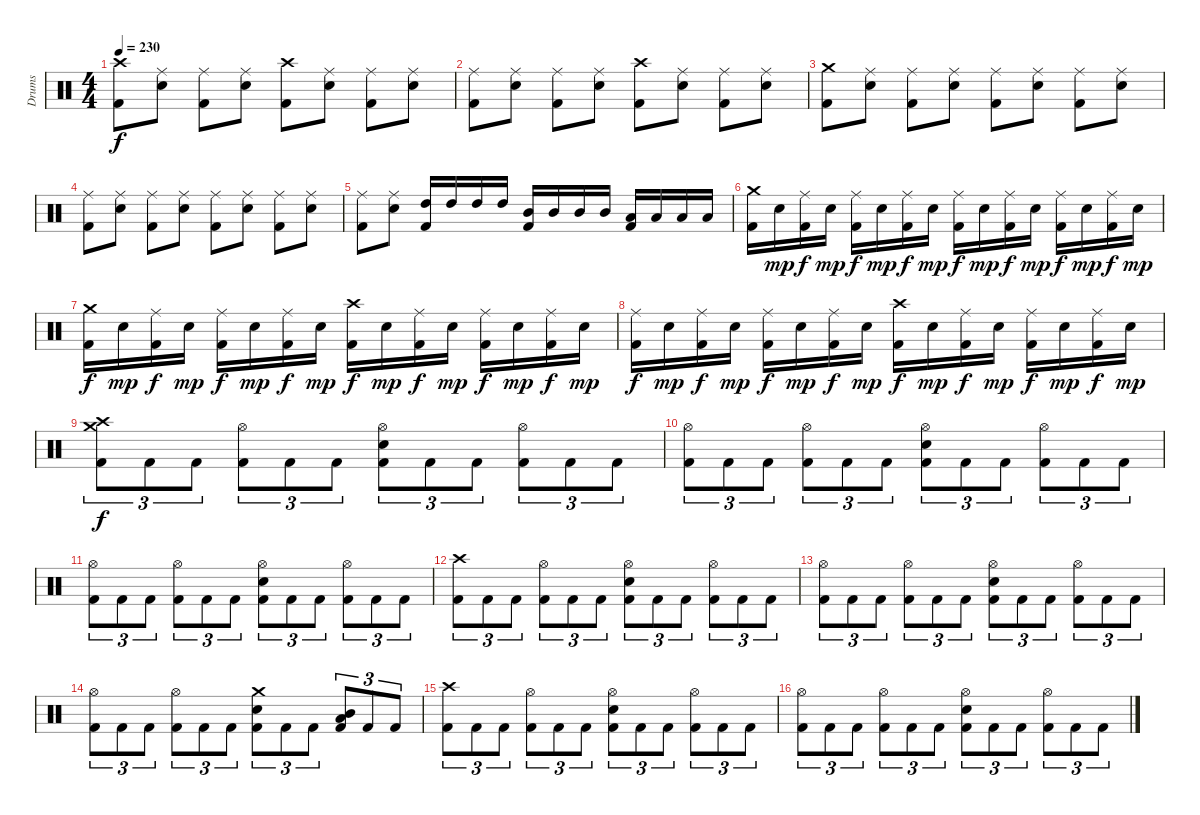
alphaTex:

\track ("Drums" "Drums") {instrument percussion}
\staff {score}
\articulation defaults
\ts (4 4)
\tempo 230
\clef neutral
\ks c
("Crash high (hit)" "Kick (hit) 2").8{dy f} ("Ride (middle)" "Electric Snare (hit)").8 ("Ride (middle)" "Kick (hit) 2").8 ("Ride (middle)" "Electric Snare (hit)").8 ("Crash high (hit)" "Kick (hit) 2").8 ("Ride (middle)" "Electric Snare (hit)").8 ("Ride (middle)" "Kick (hit) 2").8 ("Ride (middle)" "Electric Snare (hit)").8 |
("Ride (middle)" "Kick (hit) 2").8 ("Ride (middle)" "Electric Snare (hit)").8 ("Ride (middle)" "Kick (hit) 2").8 ("Ride (middle)" "Electric Snare (hit)").8 ("Crash high (hit)" "Kick (hit) 2").8 ("Ride (middle)" "Electric Snare (hit)").8 ("Ride (middle)" "Kick (hit) 2").8 ("Ride (middle)" "Electric Snare (hit)").8 |
("Crash medium (hit)" "Kick (hit) 2").8 ("Ride (middle)" "Electric Snare (hit)").8 ("Ride (middle)" "Kick (hit) 2").8 ("Ride (middle)" "Electric Snare (hit)").8 ("Ride (middle)" "Kick (hit) 2").8 ("Ride (middle)" "Electric Snare (hit)").8 ("Ride (middle)" "Kick (hit) 2").8 ("Ride (middle)" "Electric Snare (hit)").8 |
("Ride (middle)" "Kick (hit) 2").8 ("Ride (middle)" "Electric Snare (hit)").8 ("Ride (middle)" "Kick (hit) 2").8 ("Ride (middle)" "Electric Snare (hit)").8 ("Ride (middle)" "Kick (hit) 2").8 ("Ride (middle)" "Electric Snare (hit)").8 ("Ride (middle)" "Kick (hit) 2").8 ("Ride (middle)" "Electric Snare (hit)").8 |
("Ride (middle)" "Kick (hit) 2").8 ("Ride (middle)" "Electric Snare (hit)").8 ("High Tom (hit)" "Kick (hit) 2").16 "High Tom (hit)".16 "High Tom (hit)".16 "High Tom (hit)".16 ("Mid Tom (hit)" "Kick (hit) 2").16 "Mid Tom (hit)".16 "Mid Tom (hit)".16 "Mid Tom (hit)".16 ("Low Tom (hit)" "Kick (hit) 2").16 "Low Tom (hit)".16 "Low Tom (hit)".16 "Low Tom (hit)".16 |
("Crash medium (hit)" "Kick (hit) 2").16 "Electric Snare (hit)".16{dy mp} ("Ride (middle)" "Kick (hit) 2").16{dy f} "Electric Snare (hit)".16{dy mp} ("Ride (middle)" "Kick (hit) 2").16{dy f} "Electric Snare (hit)".16{dy mp} ("Ride (middle)" "Kick (hit) 2").16{dy f} "Electric Snare (hit)".16{dy mp} ("Ride (middle)" "Kick (hit) 2").16{dy f} "Electric Snare (hit)".16{dy mp} ("Ride (middle)" "Kick (hit) 2").16{dy f} "Electric Snare (hit)".16{dy mp} ("Ride (middle)" "Kick (hit) 2").16{dy f} "Electric Snare (hit)".16{dy mp} ("Ride (middle)" "Kick (hit) 2").16{dy f} "Electric Snare (hit)".16{dy mp} |
("Crash medium (hit)" "Kick (hit) 2").16{dy f} "Electric Snare (hit)".16{dy mp} ("Ride (middle)" "Kick (hit) 2").16{dy f} "Electric Snare (hit)".16{dy mp} ("Ride (middle)" "Kick (hit) 2").16{dy f} "Electric Snare (hit)".16{dy mp} ("Ride (middle)" "Kick (hit) 2").16{dy f} "Electric Snare (hit)".16{dy mp} ("Crash high (hit)" "Kick (hit) 2").16{dy f} "Electric Snare (hit)".16{dy mp} ("Ride (middle)" "Kick (hit) 2").16{dy f} "Electric Snare (hit)".16{dy mp} ("Ride (middle)" "Kick (hit) 2").16{dy f} "Electric Snare (hit)".16{dy mp} ("Ride (middle)" "Kick (hit) 2").16{dy f} "Electric Snare (hit)".16{dy mp} |
("Ride (middle)" "Kick (hit) 2").16{dy f} "Electric Snare (hit)".16{dy mp} ("Ride (middle)" "Kick (hit) 2").16{dy f} "Electric Snare (hit)".16{dy mp} ("Ride (middle)" "Kick (hit) 2").16{dy f} "Electric Snare (hit)".16{dy mp} ("Ride (middle)" "Kick (hit) 2").16{dy f} "Electric Snare (hit)".16{dy mp} ("Crash high (hit)" "Kick (hit) 2").16{dy f} "Electric Snare (hit)".16{dy mp} ("Ride (middle)" "Kick (hit) 2").16{dy f} "Electric Snare (hit)".16{dy mp} ("Ride (middle)" "Kick (hit) 2").16{dy f} "Electric Snare (hit)".16{dy mp} ("Ride (middle)" "Kick (hit) 2").16{dy f} "Electric Snare (hit)".16{dy mp} |
("Crash medium (hit)" "Crash high (hit)" "Kick (hit) 2").8{tu (3 2) dy f} "Kick (hit) 2".8{tu (3 2)} "Kick (hit) 2".8{tu (3 2)} ("Hi-Hat (open)" "Kick (hit) 2").8{tu (3 2)} "Kick (hit) 2".8{tu (3 2)} "Kick (hit) 2".8{tu (3 2)} ("Hi-Hat (open)" "Electric Snare (hit)" "Kick (hit) 2").8{tu (3 2)} "Kick (hit) 2".8{tu (3 2)} "Kick (hit) 2".8{tu (3 2)} ("Hi-Hat (open)" "Kick (hit) 2").8{tu (3 2)} "Kick (hit) 2".8{tu (3 2)} "Kick (hit) 2".8{tu (3 2)} |
("Hi-Hat (open)" "Kick (hit) 2").8{tu (3 2)} "Kick (hit) 2".8{tu (3 2)} "Kick (hit) 2".8{tu (3 2)} ("Hi-Hat (open)" "Kick (hit) 2").8{tu (3 2)} "Kick (hit) 2".8{tu (3 2)} "Kick (hit) 2".8{tu (3 2)} ("Hi-Hat (open)" "Electric Snare (hit)" "Kick (hit) 2").8{tu (3 2)} "Kick (hit) 2".8{tu (3 2)} "Kick (hit) 2".8{tu (3 2)} ("Hi-Hat (open)" "Kick (hit) 2").8{tu (3 2)} "Kick (hit) 2".8{tu (3 2)} "Kick (hit) 2".8{tu (3 2)} |
("Hi-Hat (open)" "Kick (hit) 2").8{tu (3 2)} "Kick (hit) 2".8{tu (3 2)} "Kick (hit) 2".8{tu (3 2)} ("Hi-Hat (open)" "Kick (hit) 2").8{tu (3 2)} "Kick (hit) 2".8{tu (3 2)} "Kick (hit) 2".8{tu (3 2)} ("Hi-Hat (open)" "Electric Snare (hit)" "Kick (hit) 2").8{tu (3 2)} "Kick (hit) 2".8{tu (3 2)} "Kick (hit) 2".8{tu (3 2)} ("Hi-Hat (open)" "Kick (hit) 2").8{tu (3 2)} "Kick (hit) 2".8{tu (3 2)} "Kick (hit) 2".8{tu (3 2)} |
("Crash high (hit)" "Kick (hit) 2").8{tu (3 2)} "Kick (hit) 2".8{tu (3 2)} "Kick (hit) 2".8{tu (3 2)} ("Hi-Hat (open)" "Kick (hit) 2").8{tu (3 2)} "Kick (hit) 2".8{tu (3 2)} "Kick (hit) 2".8{tu (3 2)} ("Hi-Hat (open)" "Electric Snare (hit)" "Kick (hit) 2").8{tu (3 2)} "Kick (hit) 2".8{tu (3 2)} "Kick (hit) 2".8{tu (3 2)} ("Hi-Hat (open)" "Kick (hit) 2").8{tu (3 2)} "Kick (hit) 2".8{tu (3 2)} "Kick (hit) 2".8{tu (3 2)} |
("Hi-Hat (open)" "Kick (hit) 2").8{tu (3 2)} "Kick (hit) 2".8{tu (3 2)} "Kick (hit) 2".8{tu (3 2)} ("Hi-Hat (open)" "Kick (hit) 2").8{tu (3 2)} "Kick (hit) 2".8{tu (3 2)} "Kick (hit) 2".8{tu (3 2)} ("Hi-Hat (open)" "Electric Snare (hit)" "Kick (hit) 2").8{tu (3 2)} "Kick (hit) 2".8{tu (3 2)} "Kick (hit) 2".8{tu (3 2)} ("Hi-Hat (open)" "Kick (hit) 2").8{tu (3 2)} "Kick (hit) 2".8{tu (3 2)} "Kick (hit) 2".8{tu (3 2)} |
("Hi-Hat (open)" "Kick (hit) 2").8{tu (3 2)} "Kick (hit) 2".8{tu (3 2)} "Kick (hit) 2".8{tu (3 2)} ("Hi-Hat (open)" "Kick (hit) 2").8{tu (3 2)} "Kick (hit) 2".8{tu (3 2)} "Kick (hit) 2".8{tu (3 2)} ("Crash medium (hit)" "Electric Snare (hit)" "Kick (hit) 2").8{tu (3 2)} "Kick (hit) 2".8{tu (3 2)} "Kick (hit) 2".8{tu (3 2)} ("Low Tom (hit)" "Mid Tom (hit)" "Kick (hit) 2").8{tu (3 2)} "Kick (hit) 2".8{tu (3 2)} "Kick (hit) 2".8{tu (3 2)} |
("Crash high (hit)" "Kick (hit) 2").8{tu (3 2)} "Kick (hit) 2".8{tu (3 2)} "Kick (hit) 2".8{tu (3 2)} ("Hi-Hat (open)" "Kick (hit) 2").8{tu (3 2)} "Kick (hit) 2".8{tu (3 2)} "Kick (hit) 2".8{tu (3 2)} ("Hi-Hat (open)" "Electric Snare (hit)" "Kick (hit) 2").8{tu (3 2)} "Kick (hit) 2".8{tu (3 2)} "Kick (hit) 2".8{tu (3 2)} ("Hi-Hat (open)" "Kick (hit) 2").8{tu (3 2)} "Kick (hit) 2".8{tu (3 2)} "Kick (hit) 2".8{tu (3 2)} |
("Hi-Hat (open)" "Kick (hit) 2").8{tu (3 2)} "Kick (hit) 2".8{tu (3 2)} "Kick (hit) 2".8{tu (3 2)} ("Hi-Hat (open)" "Kick (hit) 2").8{tu (3 2)} "Kick (hit) 2".8{tu (3 2)} "Kick (hit) 2".8{tu (3 2)} ("Hi-Hat (open)" "Electric Snare (hit)" "Kick (hit) 2").8{tu (3 2)} "Kick (hit) 2".8{tu (3 2)} "Kick (hit) 2".8{tu (3 2)} ("Hi-Hat (open)" "Kick (hit) 2").8{tu (3 2)} "Kick (hit) 2".8{tu (3 2)} "Kick (hit) 2".8{tu (3 2)}
